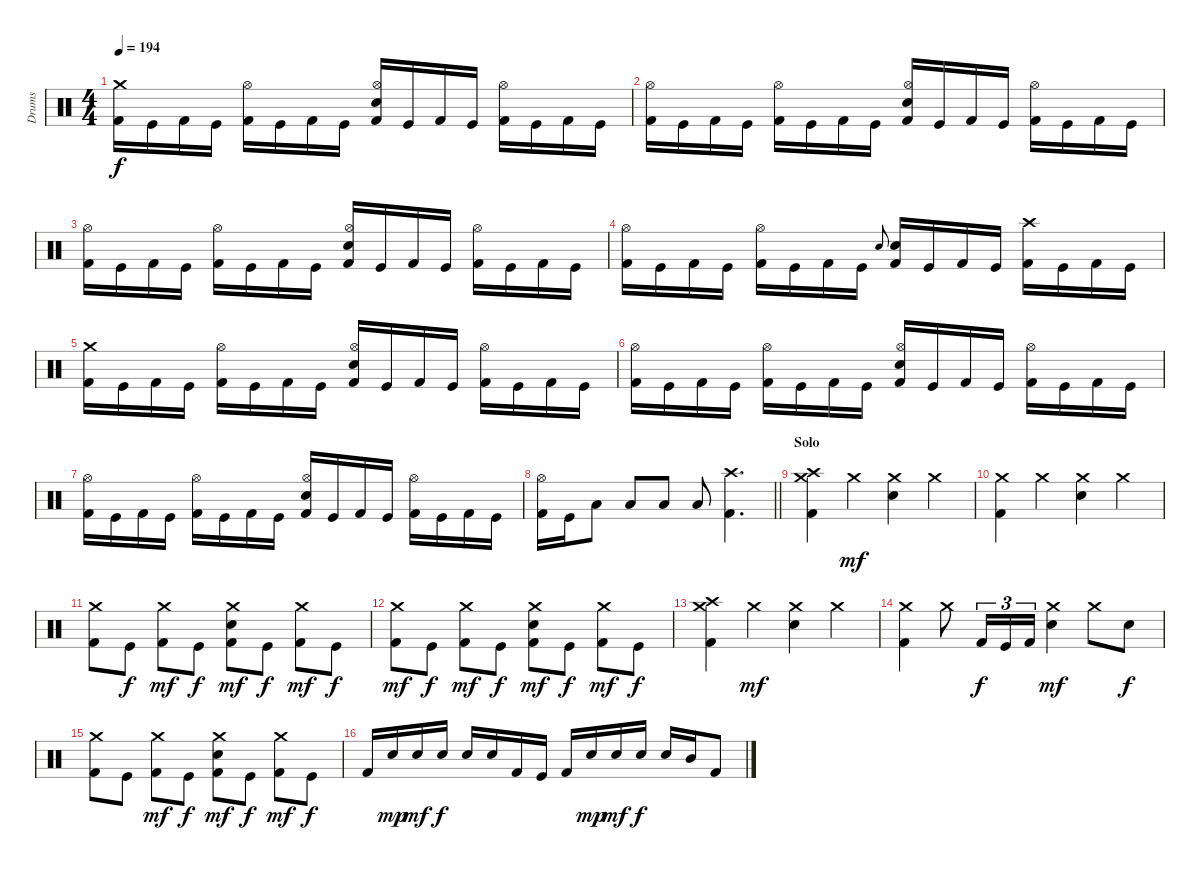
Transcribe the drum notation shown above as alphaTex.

\track ("Drums" "Drums") {instrument percussion}
\staff {score}
\articulation defaults
\ts (4 4)
\tempo 194
\clef neutral
\ks c
("Crash medium (hit)" "Kick (hit) 2").16{dy f} "Kick (hit)".16 "Kick (hit) 2".16 "Kick (hit)".16 ("Hi-Hat (open)" "Kick (hit) 2").16 "Kick (hit)".16 "Kick (hit) 2".16 "Kick (hit)".16 ("Hi-Hat (open)" "Snare (hit) 2" "Kick (hit) 2").16 "Kick (hit)".16 "Kick (hit) 2".16 "Kick (hit)".16 ("Hi-Hat (open)" "Kick (hit) 2").16 "Kick (hit)".16 "Kick (hit) 2".16 "Kick (hit)".16 |
("Hi-Hat (open)" "Kick (hit) 2").16 "Kick (hit)".16 "Kick (hit) 2".16 "Kick (hit)".16 ("Hi-Hat (open)" "Kick (hit) 2").16 "Kick (hit)".16 "Kick (hit) 2".16 "Kick (hit)".16 ("Hi-Hat (open)" "Snare (hit) 2" "Kick (hit) 2").16 "Kick (hit)".16 "Kick (hit) 2".16 "Kick (hit)".16 ("Hi-Hat (open)" "Kick (hit) 2").16 "Kick (hit)".16 "Kick (hit) 2".16 "Kick (hit)".16 |
("Hi-Hat (open)" "Kick (hit) 2").16 "Kick (hit)".16 "Kick (hit) 2".16 "Kick (hit)".16 ("Hi-Hat (open)" "Kick (hit) 2").16 "Kick (hit)".16 "Kick (hit) 2".16 "Kick (hit)".16 ("Hi-Hat (open)" "Snare (hit) 2" "Kick (hit) 2").16 "Kick (hit)".16 "Kick (hit) 2".16 "Kick (hit)".16 ("Hi-Hat (open)" "Kick (hit) 2").16 "Kick (hit)".16 "Kick (hit) 2".16 "Kick (hit)".16 |
("Hi-Hat (open)" "Kick (hit) 2").16 "Kick (hit)".16 "Kick (hit) 2".16 "Kick (hit)".16 ("Hi-Hat (open)" "Kick (hit) 2").16 "Kick (hit)".16 "Kick (hit) 2".16 "Kick (hit)".16 "Snare (hit) 2".8{gr onbeat} ("Snare (hit) 2" "Kick (hit) 2").16 "Kick (hit)".16 "Kick (hit) 2".16 "Kick (hit)".16 ("Crash high (hit)" "Kick (hit) 2").16 "Kick (hit)".16 "Kick (hit) 2".16 "Kick (hit)".16 |
("Crash medium (hit)" "Kick (hit) 2").16 "Kick (hit)".16 "Kick (hit) 2".16 "Kick (hit)".16 ("Hi-Hat (open)" "Kick (hit) 2").16 "Kick (hit)".16 "Kick (hit) 2".16 "Kick (hit)".16 ("Hi-Hat (open)" "Snare (hit) 2" "Kick (hit) 2").16 "Kick (hit)".16 "Kick (hit) 2".16 "Kick (hit)".16 ("Hi-Hat (open)" "Kick (hit) 2").16 "Kick (hit)".16 "Kick (hit) 2".16 "Kick (hit)".16 |
("Hi-Hat (open)" "Kick (hit) 2").16 "Kick (hit)".16 "Kick (hit) 2".16 "Kick (hit)".16 ("Hi-Hat (open)" "Kick (hit) 2").16 "Kick (hit)".16 "Kick (hit) 2".16 "Kick (hit)".16 ("Hi-Hat (open)" "Snare (hit) 2" "Kick (hit) 2").16 "Kick (hit)".16 "Kick (hit) 2".16 "Kick (hit)".16 ("Hi-Hat (open)" "Kick (hit) 2").16 "Kick (hit)".16 "Kick (hit) 2".16 "Kick (hit)".16 |
("Hi-Hat (open)" "Kick (hit) 2").16 "Kick (hit)".16 "Kick (hit) 2".16 "Kick (hit)".16 ("Hi-Hat (open)" "Kick (hit) 2").16 "Kick (hit)".16 "Kick (hit) 2".16 "Kick (hit)".16 ("Hi-Hat (open)" "Snare (hit) 2" "Kick (hit) 2").16 "Kick (hit)".16 "Kick (hit) 2".16 "Kick (hit)".16 ("Hi-Hat (open)" "Kick (hit) 2").16 "Kick (hit)".16 "Kick (hit) 2".16 "Kick (hit)".16 |
\barLineRight lightlight
("Hi-Hat (open)" "Kick (hit) 2").16 "Kick (hit)".16 "Low Tom (hit)".8 "Low Tom (hit)".8 "Low Tom (hit)".8 "Low Tom (hit)".8 ("Crash high (hit)" "Kick (hit) 2").4{d} |
\section ("" "Solo")
("Crash medium (hit)" "Crash high (hit)" "Kick (hit) 2").4 "Crash medium (hit)".4{dy mf} ("Crash medium (hit)" "Snare (hit) 2").4 "Crash medium (hit)".4 |
("Crash medium (hit)" "Kick (hit) 2").4 "Crash medium (hit)".4 ("Crash medium (hit)" "Snare (hit) 2").4 "Crash medium (hit)".4 |
("Crash medium (hit)" "Kick (hit) 2").8 "Kick (hit)".8{dy f} ("Crash medium (hit)" "Kick (hit) 2").8{dy mf} "Kick (hit)".8{dy f} ("Crash medium (hit)" "Snare (hit) 2" "Kick (hit) 2").8{dy mf} "Kick (hit)".8{dy f} ("Crash medium (hit)" "Kick (hit) 2").8{dy mf} "Kick (hit)".8{dy f} |
("Crash medium (hit)" "Kick (hit) 2").8{dy mf} "Kick (hit)".8{dy f} ("Crash medium (hit)" "Kick (hit) 2").8{dy mf} "Kick (hit)".8{dy f} ("Crash medium (hit)" "Snare (hit) 2" "Kick (hit) 2").8{dy mf} "Kick (hit)".8{dy f} ("Crash medium (hit)" "Kick (hit) 2").8{dy mf} "Kick (hit)".8{dy f} |
("Crash medium (hit)" "Crash high (hit)" "Kick (hit) 2").4 "Crash medium (hit)".4{dy mf} ("Crash medium (hit)" "Snare (hit) 2").4 "Crash medium (hit)".4 |
("Crash medium (hit)" "Kick (hit) 2").4 "Crash medium (hit)".8 "Kick (hit) 2".16{tu (3 2) dy f} "Kick (hit)".16{tu (3 2)} "Kick (hit) 2".16{tu (3 2)} ("Crash medium (hit)" "Snare (hit) 2").4{dy mf} "Crash medium (hit)".8 "Snare (hit) 2".8{dy f} |
("Crash medium (hit)" "Kick (hit) 2").8 "Kick (hit)".8 ("Crash medium (hit)" "Kick (hit) 2").8{dy mf} "Kick (hit)".8{dy f} ("Crash medium (hit)" "Snare (hit) 2" "Kick (hit) 2").8{dy mf} "Kick (hit)".8{dy f} ("Crash medium (hit)" "Kick (hit) 2").8{dy mf} "Kick (hit)".8{dy f} |
"Kick (hit) 2".16 "Snare (hit) 2".16{dy mp} "Snare (hit) 2".16{dy mf} "Snare (hit) 2".16{dy f} "Snare (hit) 2".16 "Snare (hit) 2".16 "Kick (hit) 2".16 "Kick (hit)".16 "Kick (hit) 2".16 "Snare (hit) 2".16{dy mp} "Snare (hit) 2".16{dy mf} "Snare (hit) 2".16{dy f} "Snare (hit) 2".16 "Mid Tom (hit)".16 "Kick (hit) 2".8
